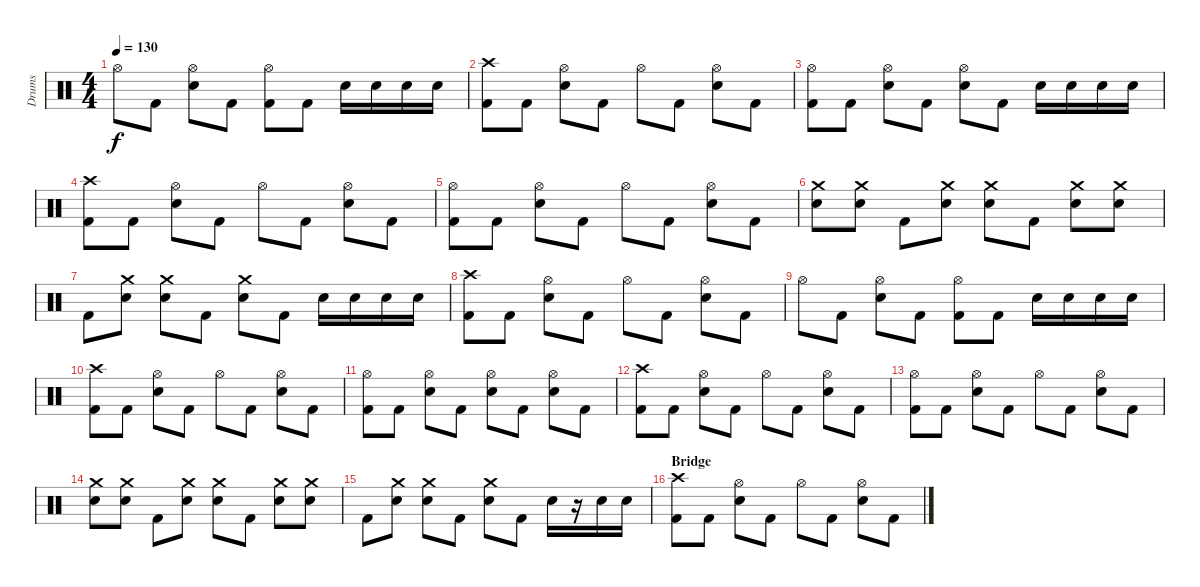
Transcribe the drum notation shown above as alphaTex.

\track ("Drums" "Drums") {instrument percussion}
\staff {score}
\articulation defaults
\ts (4 4)
\tempo 130
\clef neutral
\ks c "Hi-Hat (open)".8{dy f} "Kick (hit) 2".8
("Hi-Hat (open)" "Electric Snare (hit)").8 "Kick (hit) 2".8 ("Hi-Hat (open)" "Kick (hit) 2").8 "Kick (hit) 2".8 "Electric Snare (hit)".16 "Electric Snare (hit)".16 "Electric Snare (hit)".16 "Electric Snare (hit)".16 |
("Crash high (hit)" "Kick (hit) 2").8 "Kick (hit) 2".8 ("Hi-Hat (open)" "Electric Snare (hit)").8 "Kick (hit) 2".8 "Hi-Hat (open)".8 "Kick (hit) 2".8 ("Hi-Hat (open)" "Electric Snare (hit)").8 "Kick (hit) 2".8 |
("Hi-Hat (open)" "Kick (hit) 2").8 "Kick (hit) 2".8 ("Hi-Hat (open)" "Electric Snare (hit)").8 "Kick (hit) 2".8 ("Hi-Hat (open)" "Electric Snare (hit)").8 "Kick (hit) 2".8 "Electric Snare (hit)".16 "Electric Snare (hit)".16 "Electric Snare (hit)".16 "Electric Snare (hit)".16 |
("Crash high (hit)" "Kick (hit) 2").8 "Kick (hit) 2".8 ("Hi-Hat (open)" "Electric Snare (hit)").8 "Kick (hit) 2".8 "Hi-Hat (open)".8 "Kick (hit) 2".8 ("Hi-Hat (open)" "Electric Snare (hit)").8 "Kick (hit) 2".8 |
("Hi-Hat (open)" "Kick (hit) 2").8 "Kick (hit) 2".8 ("Hi-Hat (open)" "Electric Snare (hit)").8 "Kick (hit) 2".8 "Hi-Hat (open)".8 "Kick (hit) 2".8 ("Hi-Hat (open)" "Electric Snare (hit)").8 "Kick (hit) 2".8 |
("Crash medium (hit)" "Electric Snare (hit)").8 ("Crash medium (hit)" "Electric Snare (hit)").8 "Kick (hit) 2".8 ("Crash medium (hit)" "Electric Snare (hit)").8 ("Crash medium (hit)" "Electric Snare (hit)").8 "Kick (hit) 2".8 ("Crash medium (hit)" "Electric Snare (hit)").8 ("Crash medium (hit)" "Electric Snare (hit)").8 |
"Kick (hit) 2".8 ("Crash medium (hit)" "Electric Snare (hit)").8 ("Crash medium (hit)" "Electric Snare (hit)").8 "Kick (hit) 2".8 ("Crash medium (hit)" "Electric Snare (hit)").8 "Kick (hit) 2".8 "Electric Snare (hit)".16 "Electric Snare (hit)".16 "Electric Snare (hit)".16 "Electric Snare (hit)".16 |
("Crash high (hit)" "Kick (hit) 2").8 "Kick (hit) 2".8 ("Hi-Hat (open)" "Electric Snare (hit)").8 "Kick (hit) 2".8 "Hi-Hat (open)".8 "Kick (hit) 2".8 ("Hi-Hat (open)" "Electric Snare (hit)").8 "Kick (hit) 2".8 |
"Hi-Hat (open)".8 "Kick (hit) 2".8 ("Hi-Hat (open)" "Electric Snare (hit)").8 "Kick (hit) 2".8 ("Hi-Hat (open)" "Kick (hit) 2").8 "Kick (hit) 2".8 "Electric Snare (hit)".16 "Electric Snare (hit)".16 "Electric Snare (hit)".16 "Electric Snare (hit)".16 |
("Crash high (hit)" "Kick (hit) 2").8 "Kick (hit) 2".8 ("Hi-Hat (open)" "Electric Snare (hit)").8 "Kick (hit) 2".8 "Hi-Hat (open)".8 "Kick (hit) 2".8 ("Hi-Hat (open)" "Electric Snare (hit)").8 "Kick (hit) 2".8 |
("Hi-Hat (open)" "Kick (hit) 2").8 "Kick (hit) 2".8 ("Hi-Hat (open)" "Electric Snare (hit)").8 "Kick (hit) 2".8 ("Hi-Hat (open)" "Electric Snare (hit)").8 "Kick (hit) 2".8 ("Hi-Hat (open)" "Electric Snare (hit)").8 "Kick (hit) 2".8 |
("Crash high (hit)" "Kick (hit) 2").8 "Kick (hit) 2".8 ("Hi-Hat (open)" "Electric Snare (hit)").8 "Kick (hit) 2".8 "Hi-Hat (open)".8 "Kick (hit) 2".8 ("Hi-Hat (open)" "Electric Snare (hit)").8 "Kick (hit) 2".8 |
("Hi-Hat (open)" "Kick (hit) 2").8 "Kick (hit) 2".8 ("Hi-Hat (open)" "Electric Snare (hit)").8 "Kick (hit) 2".8 "Hi-Hat (open)".8 "Kick (hit) 2".8 ("Hi-Hat (open)" "Electric Snare (hit)").8 "Kick (hit) 2".8 |
("Crash medium (hit)" "Electric Snare (hit)").8 ("Crash medium (hit)" "Electric Snare (hit)").8 "Kick (hit) 2".8 ("Crash medium (hit)" "Electric Snare (hit)").8 ("Crash medium (hit)" "Electric Snare (hit)").8 "Kick (hit) 2".8 ("Crash medium (hit)" "Electric Snare (hit)").8 ("Crash medium (hit)" "Electric Snare (hit)").8 |
"Kick (hit) 2".8 ("Crash medium (hit)" "Electric Snare (hit)").8 ("Crash medium (hit)" "Electric Snare (hit)").8 "Kick (hit) 2".8 ("Crash medium (hit)" "Electric Snare (hit)").8 "Kick (hit) 2".8 "Electric Snare (hit)".16 r.16 "Electric Snare (hit)".16 "Electric Snare (hit)".16 |
\section ("" "Bridge")
("Crash high (hit)" "Kick (hit) 2").8 "Kick (hit) 2".8 ("Hi-Hat (open)" "Electric Snare (hit)").8 "Kick (hit) 2".8 "Hi-Hat (open)".8 "Kick (hit) 2".8 ("Hi-Hat (open)" "Electric Snare (hit)").8 "Kick (hit) 2".8
